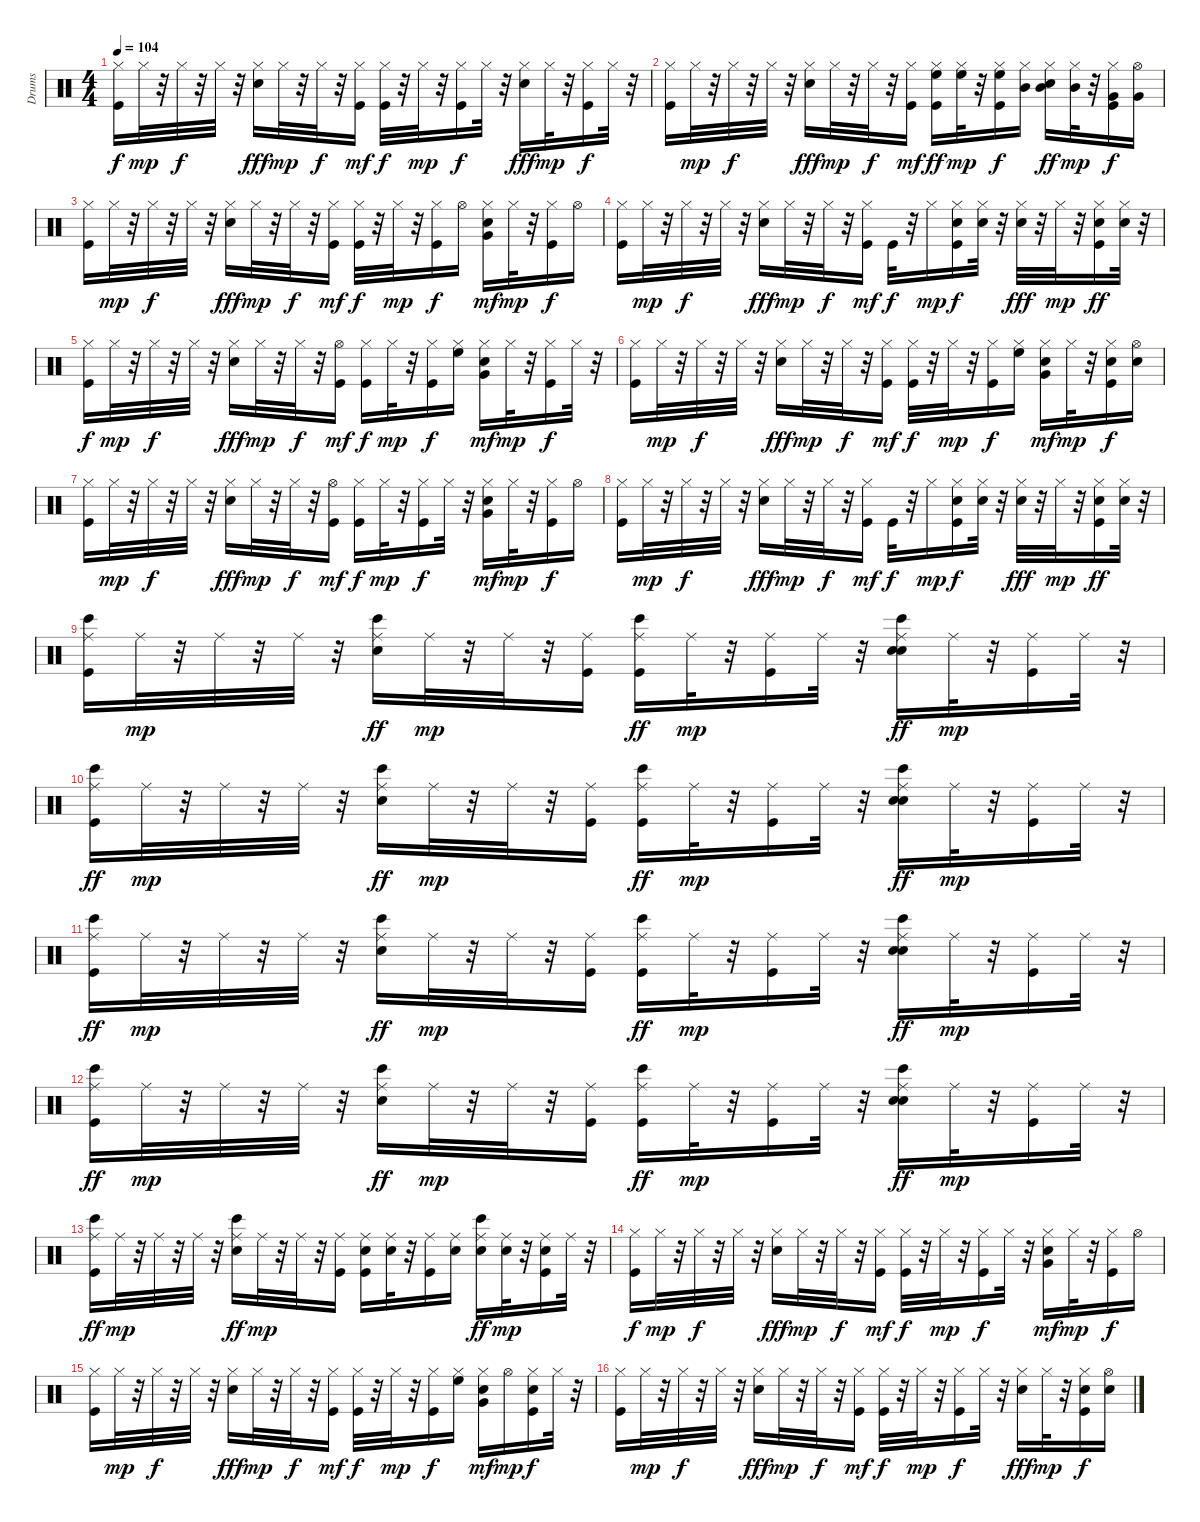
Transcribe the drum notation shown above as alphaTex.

\track ("Drums   " "Drums   ") {instrument percussion}
\staff {score}
\articulation defaults
\ts (4 4)
\tempo 104
\clef neutral
\ks c
("Kick (hit)" "Hi-Hat (closed)").16{dy f} "Hi-Hat (closed)".32{dy mp} r.32 "Hi-Hat (closed)".32{dy f} r.32 "Hi-Hat (closed)".32 r.32 ("Electric Snare (hit)" "Hi-Hat (closed)").16{dy fff} "Hi-Hat (closed)".32{dy mp} r.32 "Hi-Hat (closed)".32{dy f} r.32 ("Kick (hit)" "Hi-Hat (closed)").16{dy mf} ("Kick (hit)" "Hi-Hat (closed)").32{dy f} r.32 "Hi-Hat (closed)".32{dy mp} r.32 ("Kick (hit)" "Hi-Hat (closed)").16{dy f} "Hi-Hat (closed)".32 r.32 ("Electric Snare (hit)" "Hi-Hat (closed)").16{dy fff} "Hi-Hat (closed)".32{dy mp} r.32 ("Kick (hit)" "Hi-Hat (closed)").16{dy f} "Hi-Hat (closed)".32 r.32 |
("Kick (hit)" "Hi-Hat (closed)").16 "Hi-Hat (closed)".32{dy mp} r.32 "Hi-Hat (closed)".32{dy f} r.32 "Hi-Hat (closed)".32 r.32 ("Electric Snare (hit)" "Hi-Hat (closed)").16{dy fff} "Hi-Hat (closed)".32{dy mp} r.32 "Hi-Hat (closed)".32{dy f} r.32 ("Kick (hit)" "Hi-Hat (closed)").16{dy mf} ("Kick (hit)" "Hi-Hat (closed)" "High Floor Tom (hit)").16{dy ff} ("Hi-Hat (closed)" "High Floor Tom (hit)").32{dy mp} r.32 ("Kick (hit)" "Hi-Hat (closed)" "High Floor Tom (hit)").16{dy f} ("Hi-Hat (closed)" "Mid Tom (hit)").16 ("Electric Snare (hit)" "Hi-Hat (closed)" "Mid Tom (hit)").16{dy ff} ("Hi-Hat (closed)" "Mid Tom (hit)").32{dy mp} r.32 ("Kick (hit)" "Hi-Hat (closed)" "Very Low Tom (hit)").16{dy f} ("Very Low Tom (hit)" "Hi-Hat (open)").16 |
("Kick (hit)" "Hi-Hat (closed)").16 "Hi-Hat (closed)".32{dy mp} r.32 "Hi-Hat (closed)".32{dy f} r.32 "Hi-Hat (closed)".32 r.32 ("Electric Snare (hit)" "Hi-Hat (closed)").16{dy fff} "Hi-Hat (closed)".32{dy mp} r.32 "Hi-Hat (closed)".32{dy f} r.32 ("Kick (hit)" "Hi-Hat (closed)").16{dy mf} ("Kick (hit)" "Hi-Hat (closed)").32{dy f} r.32 "Hi-Hat (closed)".32{dy mp} r.32 ("Kick (hit)" "Hi-Hat (closed)").16{dy f} "Hi-Hat (open)".16 ("Electric Snare (hit)" "Hi-Hat (closed)" "Very Low Tom (hit)").16{dy mf} "Hi-Hat (closed)".32{dy mp} r.32 ("Kick (hit)" "Hi-Hat (closed)").16{dy f} "Hi-Hat (open)".16 |
("Kick (hit)" "Hi-Hat (closed)").16 "Hi-Hat (closed)".32{dy mp} r.32 "Hi-Hat (closed)".32{dy f} r.32 "Hi-Hat (closed)".32 r.32 ("Electric Snare (hit)" "Hi-Hat (closed)").16{dy fff} "Hi-Hat (closed)".32{dy mp} r.32 "Hi-Hat (closed)".32{dy f} r.32 ("Kick (hit)" "Hi-Hat (closed)").16{dy mf} "Kick (hit)".32{dy f} r.32 "Hi-Hat (closed)".16{dy mp} ("Kick (hit)" "Electric Snare (hit)" "Hi-Hat (closed)").16{dy f} ("Electric Snare (hit)" "Hi-Hat (closed)").32 r.32 ("Electric Snare (hit)" "Hi-Hat (closed)").32{dy fff} r.32 "Hi-Hat (closed)".32{dy mp} r.32 ("Kick (hit)" "Electric Snare (hit)" "Hi-Hat (closed)").16{dy ff} ("Electric Snare (hit)" "Hi-Hat (closed)").32 r.32 |
("Kick (hit)" "Hi-Hat (closed)").16{dy f} "Hi-Hat (closed)".32{dy mp} r.32 "Hi-Hat (closed)".32{dy f} r.32 "Hi-Hat (closed)".32 r.32 ("Electric Snare (hit)" "Hi-Hat (closed)").16{dy fff} "Hi-Hat (closed)".32{dy mp} r.32 "Hi-Hat (closed)".32{dy f} r.32 ("Kick (hit)" "Hi-Hat (open)").16{dy mf} ("Kick (hit)" "Hi-Hat (closed)").16{dy f} "Hi-Hat (closed)".32{dy mp} r.32 ("Kick (hit)" "Hi-Hat (closed)").16{dy f} ("Hi-Hat (closed)" "High Floor Tom (hit)").16 ("Electric Snare (hit)" "Hi-Hat (closed)" "Very Low Tom (hit)").16{dy mf} "Hi-Hat (closed)".32{dy mp} r.32 ("Kick (hit)" "Hi-Hat (closed)").16{dy f} "Hi-Hat (closed)".32 r.32 |
("Kick (hit)" "Hi-Hat (closed)").16 "Hi-Hat (closed)".32{dy mp} r.32 "Hi-Hat (closed)".32{dy f} r.32 "Hi-Hat (closed)".32 r.32 ("Electric Snare (hit)" "Hi-Hat (closed)").16{dy fff} "Hi-Hat (closed)".32{dy mp} r.32 "Hi-Hat (closed)".32{dy f} r.32 ("Kick (hit)" "Hi-Hat (closed)").16{dy mf} ("Kick (hit)" "Hi-Hat (closed)").32{dy f} r.32 "Hi-Hat (closed)".32{dy mp} r.32 ("Kick (hit)" "Hi-Hat (closed)").16{dy f} ("Hi-Hat (closed)" "High Floor Tom (hit)").16 ("Electric Snare (hit)" "Hi-Hat (closed)" "Very Low Tom (hit)").16{dy mf} "Hi-Hat (closed)".32{dy mp} r.32 ("Kick (hit)" "Electric Snare (hit)" "Hi-Hat (closed)").16{dy f} ("Electric Snare (hit)" "Hi-Hat (open)").16 |
("Kick (hit)" "Hi-Hat (closed)").16 "Hi-Hat (closed)".32{dy mp} r.32 "Hi-Hat (closed)".32{dy f} r.32 "Hi-Hat (closed)".32 r.32 ("Electric Snare (hit)" "Hi-Hat (closed)").16{dy fff} "Hi-Hat (closed)".32{dy mp} r.32 "Hi-Hat (closed)".32{dy f} r.32 ("Kick (hit)" "Hi-Hat (open)").16{dy mf} ("Kick (hit)" "Hi-Hat (closed)").16{dy f} "Hi-Hat (closed)".32{dy mp} r.32 ("Kick (hit)" "Hi-Hat (closed)").16{dy f} "Hi-Hat (closed)".32 r.32 ("Electric Snare (hit)" "Hi-Hat (closed)" "Very Low Tom (hit)").16{dy mf} "Hi-Hat (closed)".32{dy mp} r.32 ("Kick (hit)" "Hi-Hat (closed)").16{dy f} "Hi-Hat (open)".16 |
("Kick (hit)" "Hi-Hat (closed)").16 "Hi-Hat (closed)".32{dy mp} r.32 "Hi-Hat (closed)".32{dy f} r.32 "Hi-Hat (closed)".32 r.32 ("Electric Snare (hit)" "Hi-Hat (closed)").16{dy fff} "Hi-Hat (closed)".32{dy mp} r.32 "Hi-Hat (closed)".32{dy f} r.32 ("Kick (hit)" "Hi-Hat (closed)").16{dy mf} "Kick (hit)".32{dy f} r.32 "Hi-Hat (closed)".16{dy mp} ("Kick (hit)" "Electric Snare (hit)" "Hi-Hat (closed)").16{dy f} ("Electric Snare (hit)" "Hi-Hat (closed)").32 r.32 ("Electric Snare (hit)" "Hi-Hat (closed)").32{dy fff} r.32 "Hi-Hat (closed)".32{dy mp} r.32 ("Kick (hit)" "Electric Snare (hit)" "Hi-Hat (closed)").16{dy ff} ("Electric Snare (hit)" "Hi-Hat (closed)").32 r.32 |
("Kick (hit)" "Ride (middle)" "Bongo High (hit)").16 "Ride (middle)".32{dy mp} r.32 "Ride (middle)".32 r.32 "Ride (middle)".32 r.32 ("Electric Snare (hit)" "Ride (middle)" "Bongo High (hit)").16{dy ff} "Ride (middle)".32{dy mp} r.32 "Ride (middle)".32 r.32 ("Kick (hit)" "Ride (middle)").16 ("Kick (hit)" "Ride (middle)" "Bongo High (hit)").16{dy ff} "Ride (middle)".32{dy mp} r.32 ("Kick (hit)" "Ride (middle)").16 "Ride (middle)".32 r.32 ("Hand Clap (hit)" "Electric Snare (hit)" "Ride (middle)" "Bongo High (hit)").16{dy ff} "Ride (middle)".32{dy mp} r.32 ("Kick (hit)" "Ride (middle)").16 "Ride (middle)".32 r.32 |
("Kick (hit)" "Ride (middle)" "Bongo High (hit)").16{dy ff} "Ride (middle)".32{dy mp} r.32 "Ride (middle)".32 r.32 "Ride (middle)".32 r.32 ("Electric Snare (hit)" "Ride (middle)" "Bongo High (hit)").16{dy ff} "Ride (middle)".32{dy mp} r.32 "Ride (middle)".32 r.32 ("Kick (hit)" "Ride (middle)").16 ("Kick (hit)" "Ride (middle)" "Bongo High (hit)").16{dy ff} "Ride (middle)".32{dy mp} r.32 ("Kick (hit)" "Ride (middle)").16 "Ride (middle)".32 r.32 ("Hand Clap (hit)" "Electric Snare (hit)" "Ride (middle)" "Bongo High (hit)").16{dy ff} "Ride (middle)".32{dy mp} r.32 ("Kick (hit)" "Ride (middle)").16 "Ride (middle)".32 r.32 |
("Kick (hit)" "Ride (middle)" "Bongo High (hit)").16{dy ff} "Ride (middle)".32{dy mp} r.32 "Ride (middle)".32 r.32 "Ride (middle)".32 r.32 ("Electric Snare (hit)" "Ride (middle)" "Bongo High (hit)").16{dy ff} "Ride (middle)".32{dy mp} r.32 "Ride (middle)".32 r.32 ("Kick (hit)" "Ride (middle)").16 ("Kick (hit)" "Ride (middle)" "Bongo High (hit)").16{dy ff} "Ride (middle)".32{dy mp} r.32 ("Kick (hit)" "Ride (middle)").16 "Ride (middle)".32 r.32 ("Hand Clap (hit)" "Electric Snare (hit)" "Ride (middle)" "Bongo High (hit)").16{dy ff} "Ride (middle)".32{dy mp} r.32 ("Kick (hit)" "Ride (middle)").16 "Ride (middle)".32 r.32 |
("Kick (hit)" "Ride (middle)" "Bongo High (hit)").16{dy ff} "Ride (middle)".32{dy mp} r.32 "Ride (middle)".32 r.32 "Ride (middle)".32 r.32 ("Electric Snare (hit)" "Ride (middle)" "Bongo High (hit)").16{dy ff} "Ride (middle)".32{dy mp} r.32 "Ride (middle)".32 r.32 ("Kick (hit)" "Ride (middle)").16 ("Kick (hit)" "Ride (middle)" "Bongo High (hit)").16{dy ff} "Ride (middle)".32{dy mp} r.32 ("Kick (hit)" "Ride (middle)").16 "Ride (middle)".32 r.32 ("Hand Clap (hit)" "Electric Snare (hit)" "Ride (middle)" "Bongo High (hit)").16{dy ff} "Ride (middle)".32{dy mp} r.32 ("Kick (hit)" "Ride (middle)").16 "Ride (middle)".32 r.32 |
("Kick (hit)" "Ride (middle)" "Bongo High (hit)").16{dy ff} "Ride (middle)".32{dy mp} r.32 "Ride (middle)".32 r.32 "Ride (middle)".32 r.32 ("Electric Snare (hit)" "Ride (middle)" "Bongo High (hit)").16{dy ff} "Ride (middle)".32{dy mp} r.32 "Ride (middle)".32 r.32 ("Kick (hit)" "Ride (middle)").16 ("Kick (hit)" "Electric Snare (hit)" "Ride (middle)").16 ("Electric Snare (hit)" "Ride (middle)").32 r.32 ("Kick (hit)" "Ride (middle)").16 ("Electric Snare (hit)" "Ride (middle)").16 ("Electric Snare (hit)" "Ride (middle)" "Bongo High (hit)").16{dy ff} ("Electric Snare (hit)" "Ride (middle)").32{dy mp} r.32 ("Kick (hit)" "Electric Snare (hit)" "Ride (middle)").16 "Ride (middle)".32 r.32 |
("Kick (hit)" "Hi-Hat (closed)").16{dy f} "Hi-Hat (closed)".32{dy mp} r.32 "Hi-Hat (closed)".32{dy f} r.32 "Hi-Hat (closed)".32 r.32 ("Electric Snare (hit)" "Hi-Hat (closed)").16{dy fff} "Hi-Hat (closed)".32{dy mp} r.32 "Hi-Hat (closed)".32{dy f} r.32 ("Kick (hit)" "Hi-Hat (closed)").16{dy mf} ("Kick (hit)" "Hi-Hat (closed)").32{dy f} r.32 "Hi-Hat (closed)".32{dy mp} r.32 ("Kick (hit)" "Hi-Hat (closed)").16{dy f} "Hi-Hat (closed)".32 r.32 ("Electric Snare (hit)" "Hi-Hat (closed)" "Very Low Tom (hit)").16{dy mf} "Hi-Hat (closed)".32{dy mp} r.32 ("Kick (hit)" "Hi-Hat (closed)").16{dy f} "Hi-Hat (open)".16 |
("Kick (hit)" "Hi-Hat (closed)").16 "Hi-Hat (closed)".32{dy mp} r.32 "Hi-Hat (closed)".32{dy f} r.32 "Hi-Hat (closed)".32 r.32 ("Electric Snare (hit)" "Hi-Hat (closed)").16{dy fff} "Hi-Hat (closed)".32{dy mp} r.32 "Hi-Hat (closed)".32{dy f} r.32 ("Kick (hit)" "Hi-Hat (closed)").16{dy mf} ("Kick (hit)" "Hi-Hat (closed)").32{dy f} r.32 "Hi-Hat (closed)".32{dy mp} r.32 ("Kick (hit)" "Hi-Hat (closed)").16{dy f} ("Hi-Hat (closed)" "High Floor Tom (hit)").16 ("Electric Snare (hit)" "Hi-Hat (closed)" "Very Low Tom (hit)").16{dy mf} "Hi-Hat (open)".16{dy mp} ("Kick (hit)" "Electric Snare (hit)" "Hi-Hat (closed)").16{dy f} "Hi-Hat (closed)".32 r.32 |
("Kick (hit)" "Hi-Hat (closed)").16 "Hi-Hat (closed)".32{dy mp} r.32 "Hi-Hat (closed)".32{dy f} r.32 "Hi-Hat (closed)".32 r.32 ("Electric Snare (hit)" "Hi-Hat (closed)").16{dy fff} "Hi-Hat (closed)".32{dy mp} r.32 "Hi-Hat (closed)".32{dy f} r.32 ("Kick (hit)" "Hi-Hat (closed)").16{dy mf} ("Kick (hit)" "Hi-Hat (closed)").32{dy f} r.32 "Hi-Hat (closed)".32{dy mp} r.32 ("Kick (hit)" "Hi-Hat (closed)").16{dy f} "Hi-Hat (closed)".32 r.32 ("Electric Snare (hit)" "Hi-Hat (closed)").16{dy fff} "Hi-Hat (closed)".32{dy mp} r.32 ("Kick (hit)" "Electric Snare (hit)" "Hi-Hat (closed)").16{dy f} ("Electric Snare (hit)" "Hi-Hat (open)").16
